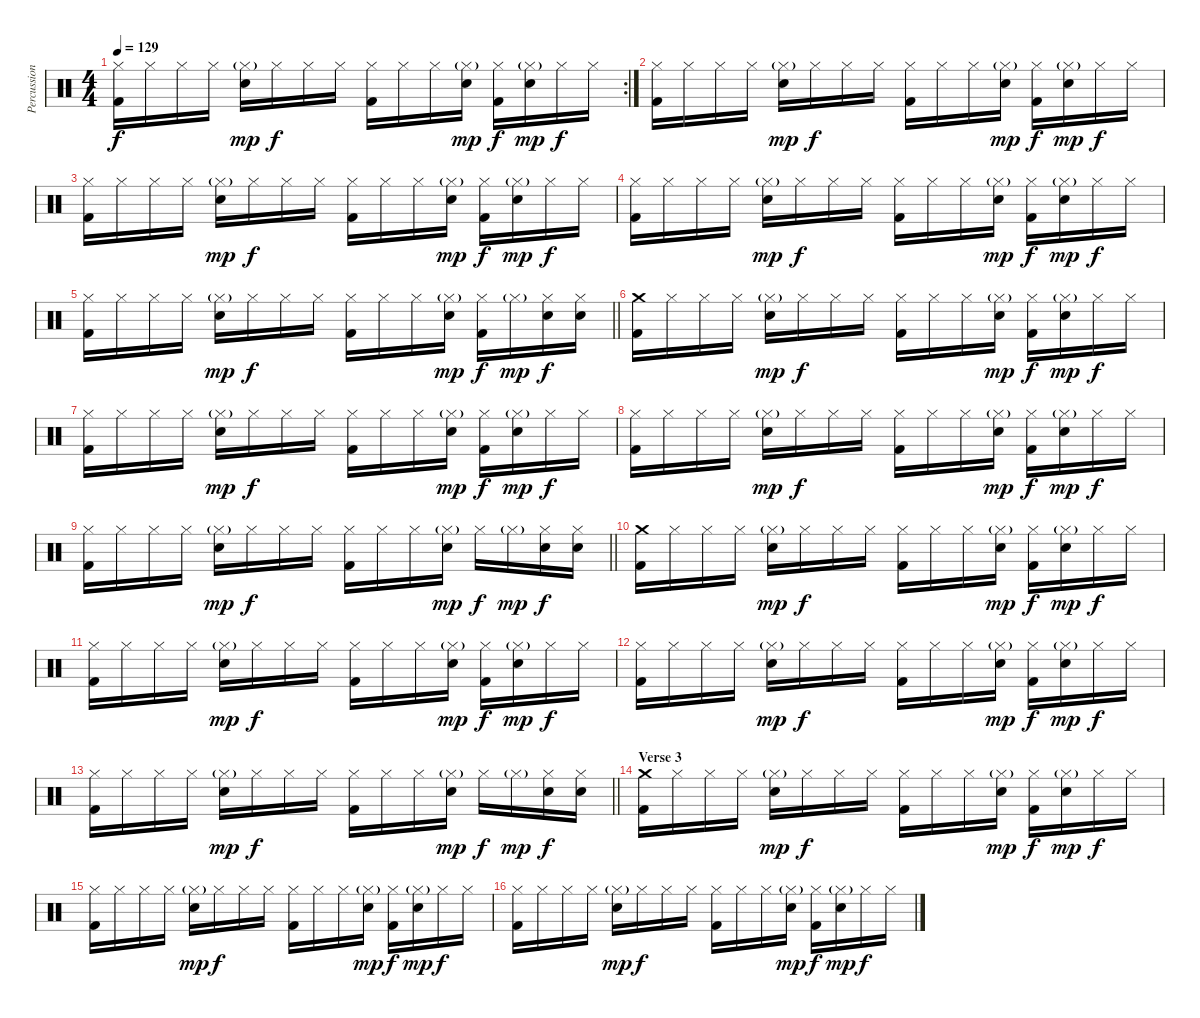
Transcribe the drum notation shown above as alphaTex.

\track ("Percussion" "Percussion") {instrument percussion}
\staff {score}
\articulation defaults
\rc 2
\ts (4 4)
\tempo 129
\clef neutral
\ks c
("Hi-Hat (closed)" "Kick (hit) 2").16{dy f} "Hi-Hat (closed)".16 "Hi-Hat (closed)".16 "Hi-Hat (closed)".16 ("Hi-Hat (closed)"{g} "Electric Snare (hit)").16{dy mp} "Hi-Hat (closed)".16{dy f} "Hi-Hat (closed)".16 "Hi-Hat (closed)".16 ("Hi-Hat (closed)" "Kick (hit) 2").16 "Hi-Hat (closed)".16 "Hi-Hat (closed)".16 ("Hi-Hat (closed)"{g} "Electric Snare (hit)").16{dy mp} ("Hi-Hat (closed)" "Kick (hit) 2").16{dy f} ("Hi-Hat (closed)"{g} "Electric Snare (hit)").16{dy mp} "Hi-Hat (closed)".16{dy f} "Hi-Hat (closed)".16 |
("Hi-Hat (closed)" "Kick (hit) 2").16 "Hi-Hat (closed)".16 "Hi-Hat (closed)".16 "Hi-Hat (closed)".16 ("Hi-Hat (closed)"{g} "Electric Snare (hit)").16{dy mp} "Hi-Hat (closed)".16{dy f} "Hi-Hat (closed)".16 "Hi-Hat (closed)".16 ("Hi-Hat (closed)" "Kick (hit) 2").16 "Hi-Hat (closed)".16 "Hi-Hat (closed)".16 ("Hi-Hat (closed)"{g} "Electric Snare (hit)").16{dy mp} ("Hi-Hat (closed)" "Kick (hit) 2").16{dy f} ("Hi-Hat (closed)"{g} "Electric Snare (hit)").16{dy mp} "Hi-Hat (closed)".16{dy f} "Hi-Hat (closed)".16 |
("Hi-Hat (closed)" "Kick (hit) 2").16 "Hi-Hat (closed)".16 "Hi-Hat (closed)".16 "Hi-Hat (closed)".16 ("Hi-Hat (closed)"{g} "Electric Snare (hit)").16{dy mp} "Hi-Hat (closed)".16{dy f} "Hi-Hat (closed)".16 "Hi-Hat (closed)".16 ("Hi-Hat (closed)" "Kick (hit) 2").16 "Hi-Hat (closed)".16 "Hi-Hat (closed)".16 ("Hi-Hat (closed)"{g} "Electric Snare (hit)").16{dy mp} ("Hi-Hat (closed)" "Kick (hit) 2").16{dy f} ("Hi-Hat (closed)"{g} "Electric Snare (hit)").16{dy mp} "Hi-Hat (closed)".16{dy f} "Hi-Hat (closed)".16 |
("Hi-Hat (closed)" "Kick (hit) 2").16 "Hi-Hat (closed)".16 "Hi-Hat (closed)".16 "Hi-Hat (closed)".16 ("Hi-Hat (closed)"{g} "Electric Snare (hit)").16{dy mp} "Hi-Hat (closed)".16{dy f} "Hi-Hat (closed)".16 "Hi-Hat (closed)".16 ("Hi-Hat (closed)" "Kick (hit) 2").16 "Hi-Hat (closed)".16 "Hi-Hat (closed)".16 ("Hi-Hat (closed)"{g} "Electric Snare (hit)").16{dy mp} ("Hi-Hat (closed)" "Kick (hit) 2").16{dy f} ("Hi-Hat (closed)"{g} "Electric Snare (hit)").16{dy mp} "Hi-Hat (closed)".16{dy f} "Hi-Hat (closed)".16 |
\barLineRight lightlight
("Hi-Hat (closed)" "Kick (hit) 2").16 "Hi-Hat (closed)".16 "Hi-Hat (closed)".16 "Hi-Hat (closed)".16 ("Hi-Hat (closed)"{g} "Electric Snare (hit)").16{dy mp} "Hi-Hat (closed)".16{dy f} "Hi-Hat (closed)".16 "Hi-Hat (closed)".16 ("Hi-Hat (closed)" "Kick (hit) 2").16 "Hi-Hat (closed)".16 "Hi-Hat (closed)".16 ("Hi-Hat (closed)"{g} "Electric Snare (hit)").16{dy mp} ("Hi-Hat (closed)" "Kick (hit) 2").16{dy f} "Hi-Hat (closed)"{g}.16{dy mp} ("Hi-Hat (closed)" "Electric Snare (hit)").16{dy f} ("Hi-Hat (closed)" "Electric Snare (hit)").16 |
("Crash medium (hit)" "Kick (hit) 2").16 "Hi-Hat (closed)".16 "Hi-Hat (closed)".16 "Hi-Hat (closed)".16 ("Hi-Hat (closed)"{g} "Electric Snare (hit)").16{dy mp} "Hi-Hat (closed)".16{dy f} "Hi-Hat (closed)".16 "Hi-Hat (closed)".16 ("Hi-Hat (closed)" "Kick (hit) 2").16 "Hi-Hat (closed)".16 "Hi-Hat (closed)".16 ("Hi-Hat (closed)"{g} "Electric Snare (hit)").16{dy mp} ("Hi-Hat (closed)" "Kick (hit) 2").16{dy f} ("Hi-Hat (closed)"{g} "Electric Snare (hit)").16{dy mp} "Hi-Hat (closed)".16{dy f} "Hi-Hat (closed)".16 |
("Hi-Hat (closed)" "Kick (hit) 2").16 "Hi-Hat (closed)".16 "Hi-Hat (closed)".16 "Hi-Hat (closed)".16 ("Hi-Hat (closed)"{g} "Electric Snare (hit)").16{dy mp} "Hi-Hat (closed)".16{dy f} "Hi-Hat (closed)".16 "Hi-Hat (closed)".16 ("Hi-Hat (closed)" "Kick (hit) 2").16 "Hi-Hat (closed)".16 "Hi-Hat (closed)".16 ("Hi-Hat (closed)"{g} "Electric Snare (hit)").16{dy mp} ("Hi-Hat (closed)" "Kick (hit) 2").16{dy f} ("Hi-Hat (closed)"{g} "Electric Snare (hit)").16{dy mp} "Hi-Hat (closed)".16{dy f} "Hi-Hat (closed)".16 |
("Hi-Hat (closed)" "Kick (hit) 2").16 "Hi-Hat (closed)".16 "Hi-Hat (closed)".16 "Hi-Hat (closed)".16 ("Hi-Hat (closed)"{g} "Electric Snare (hit)").16{dy mp} "Hi-Hat (closed)".16{dy f} "Hi-Hat (closed)".16 "Hi-Hat (closed)".16 ("Hi-Hat (closed)" "Kick (hit) 2").16 "Hi-Hat (closed)".16 "Hi-Hat (closed)".16 ("Hi-Hat (closed)"{g} "Electric Snare (hit)").16{dy mp} ("Hi-Hat (closed)" "Kick (hit) 2").16{dy f} ("Hi-Hat (closed)"{g} "Electric Snare (hit)").16{dy mp} "Hi-Hat (closed)".16{dy f} "Hi-Hat (closed)".16 |
\barLineRight lightlight
("Hi-Hat (closed)" "Kick (hit) 2").16 "Hi-Hat (closed)".16 "Hi-Hat (closed)".16 "Hi-Hat (closed)".16 ("Hi-Hat (closed)"{g} "Electric Snare (hit)").16{dy mp} "Hi-Hat (closed)".16{dy f} "Hi-Hat (closed)".16 "Hi-Hat (closed)".16 ("Hi-Hat (closed)" "Kick (hit) 2").16 "Hi-Hat (closed)".16 "Hi-Hat (closed)".16 ("Hi-Hat (closed)"{g} "Electric Snare (hit)").16{dy mp} "Hi-Hat (closed)".16{dy f} "Hi-Hat (closed)"{g}.16{dy mp} ("Hi-Hat (closed)" "Electric Snare (hit)").16{dy f} ("Hi-Hat (closed)" "Electric Snare (hit)").16 |
("Crash medium (hit)" "Kick (hit) 2").16 "Hi-Hat (closed)".16 "Hi-Hat (closed)".16 "Hi-Hat (closed)".16 ("Hi-Hat (closed)"{g} "Electric Snare (hit)").16{dy mp} "Hi-Hat (closed)".16{dy f} "Hi-Hat (closed)".16 "Hi-Hat (closed)".16 ("Hi-Hat (closed)" "Kick (hit) 2").16 "Hi-Hat (closed)".16 "Hi-Hat (closed)".16 ("Hi-Hat (closed)"{g} "Electric Snare (hit)").16{dy mp} ("Hi-Hat (closed)" "Kick (hit) 2").16{dy f} ("Hi-Hat (closed)"{g} "Electric Snare (hit)").16{dy mp} "Hi-Hat (closed)".16{dy f} "Hi-Hat (closed)".16 |
("Hi-Hat (closed)" "Kick (hit) 2").16 "Hi-Hat (closed)".16 "Hi-Hat (closed)".16 "Hi-Hat (closed)".16 ("Hi-Hat (closed)"{g} "Electric Snare (hit)").16{dy mp} "Hi-Hat (closed)".16{dy f} "Hi-Hat (closed)".16 "Hi-Hat (closed)".16 ("Hi-Hat (closed)" "Kick (hit) 2").16 "Hi-Hat (closed)".16 "Hi-Hat (closed)".16 ("Hi-Hat (closed)"{g} "Electric Snare (hit)").16{dy mp} ("Hi-Hat (closed)" "Kick (hit) 2").16{dy f} ("Hi-Hat (closed)"{g} "Electric Snare (hit)").16{dy mp} "Hi-Hat (closed)".16{dy f} "Hi-Hat (closed)".16 |
("Hi-Hat (closed)" "Kick (hit) 2").16 "Hi-Hat (closed)".16 "Hi-Hat (closed)".16 "Hi-Hat (closed)".16 ("Hi-Hat (closed)"{g} "Electric Snare (hit)").16{dy mp} "Hi-Hat (closed)".16{dy f} "Hi-Hat (closed)".16 "Hi-Hat (closed)".16 ("Hi-Hat (closed)" "Kick (hit) 2").16 "Hi-Hat (closed)".16 "Hi-Hat (closed)".16 ("Hi-Hat (closed)"{g} "Electric Snare (hit)").16{dy mp} ("Hi-Hat (closed)" "Kick (hit) 2").16{dy f} ("Hi-Hat (closed)"{g} "Electric Snare (hit)").16{dy mp} "Hi-Hat (closed)".16{dy f} "Hi-Hat (closed)".16 |
\barLineRight lightlight
("Hi-Hat (closed)" "Kick (hit) 2").16 "Hi-Hat (closed)".16 "Hi-Hat (closed)".16 "Hi-Hat (closed)".16 ("Hi-Hat (closed)"{g} "Electric Snare (hit)").16{dy mp} "Hi-Hat (closed)".16{dy f} "Hi-Hat (closed)".16 "Hi-Hat (closed)".16 ("Hi-Hat (closed)" "Kick (hit) 2").16 "Hi-Hat (closed)".16 "Hi-Hat (closed)".16 ("Hi-Hat (closed)"{g} "Electric Snare (hit)").16{dy mp} "Hi-Hat (closed)".16{dy f} "Hi-Hat (closed)"{g}.16{dy mp} ("Hi-Hat (closed)" "Electric Snare (hit)").16{dy f} ("Hi-Hat (closed)" "Electric Snare (hit)").16 |
\section ("" "Verse 3")
("Crash medium (hit)" "Kick (hit) 2").16 "Hi-Hat (closed)".16 "Hi-Hat (closed)".16 "Hi-Hat (closed)".16 ("Hi-Hat (closed)"{g} "Electric Snare (hit)").16{dy mp} "Hi-Hat (closed)".16{dy f} "Hi-Hat (closed)".16 "Hi-Hat (closed)".16 ("Hi-Hat (closed)" "Kick (hit) 2").16 "Hi-Hat (closed)".16 "Hi-Hat (closed)".16 ("Hi-Hat (closed)"{g} "Electric Snare (hit)").16{dy mp} ("Hi-Hat (closed)" "Kick (hit) 2").16{dy f} ("Hi-Hat (closed)"{g} "Electric Snare (hit)").16{dy mp} "Hi-Hat (closed)".16{dy f} "Hi-Hat (closed)".16 |
("Hi-Hat (closed)" "Kick (hit) 2").16 "Hi-Hat (closed)".16 "Hi-Hat (closed)".16 "Hi-Hat (closed)".16 ("Hi-Hat (closed)"{g} "Electric Snare (hit)").16{dy mp} "Hi-Hat (closed)".16{dy f} "Hi-Hat (closed)".16 "Hi-Hat (closed)".16 ("Hi-Hat (closed)" "Kick (hit) 2").16 "Hi-Hat (closed)".16 "Hi-Hat (closed)".16 ("Hi-Hat (closed)"{g} "Electric Snare (hit)").16{dy mp} ("Hi-Hat (closed)" "Kick (hit) 2").16{dy f} ("Hi-Hat (closed)"{g} "Electric Snare (hit)").16{dy mp} "Hi-Hat (closed)".16{dy f} "Hi-Hat (closed)".16 |
("Hi-Hat (closed)" "Kick (hit) 2").16 "Hi-Hat (closed)".16 "Hi-Hat (closed)".16 "Hi-Hat (closed)".16 ("Hi-Hat (closed)"{g} "Electric Snare (hit)").16{dy mp} "Hi-Hat (closed)".16{dy f} "Hi-Hat (closed)".16 "Hi-Hat (closed)".16 ("Hi-Hat (closed)" "Kick (hit) 2").16 "Hi-Hat (closed)".16 "Hi-Hat (closed)".16 ("Hi-Hat (closed)"{g} "Electric Snare (hit)").16{dy mp} ("Hi-Hat (closed)" "Kick (hit) 2").16{dy f} ("Hi-Hat (closed)"{g} "Electric Snare (hit)").16{dy mp} "Hi-Hat (closed)".16{dy f} "Hi-Hat (closed)".16
